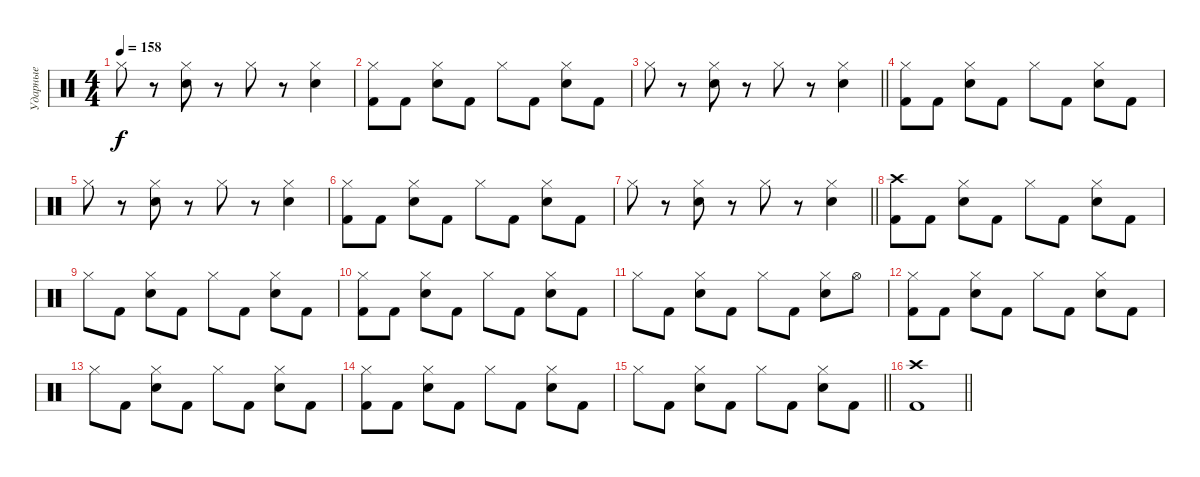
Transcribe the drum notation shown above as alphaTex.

\track ("Ударные" "Ударные") {instrument percussion}
\staff {score}
\articulation defaults
\ts (4 4)
\tempo 158
\clef neutral
\ks c "Hi-Hat (closed)".8{dy f}
r.8 ("Hi-Hat (closed)" "Electric Snare (hit)").8 r.8 "Hi-Hat (closed)".8 r.8 ("Hi-Hat (closed)" "Electric Snare (hit)").4 |
("Hi-Hat (closed)" "Kick (hit) 2").8 "Kick (hit) 2".8 ("Hi-Hat (closed)" "Electric Snare (hit)").8 "Kick (hit) 2".8 "Hi-Hat (closed)".8 "Kick (hit) 2".8 ("Hi-Hat (closed)" "Electric Snare (hit)").8 "Kick (hit) 2".8 |
\barLineRight lightlight "Hi-Hat (closed)".8
r.8 ("Hi-Hat (closed)" "Electric Snare (hit)").8 r.8 "Hi-Hat (closed)".8 r.8 ("Hi-Hat (closed)" "Electric Snare (hit)").4 |
("Hi-Hat (closed)" "Kick (hit) 2").8 "Kick (hit) 2".8 ("Hi-Hat (closed)" "Electric Snare (hit)").8 "Kick (hit) 2".8 "Hi-Hat (closed)".8 "Kick (hit) 2".8 ("Hi-Hat (closed)" "Electric Snare (hit)").8 "Kick (hit) 2".8 |
"Hi-Hat (closed)".8 r.8 ("Hi-Hat (closed)" "Electric Snare (hit)").8 r.8 "Hi-Hat (closed)".8 r.8 ("Hi-Hat (closed)" "Electric Snare (hit)").4 |
("Hi-Hat (closed)" "Kick (hit) 2").8 "Kick (hit) 2".8 ("Hi-Hat (closed)" "Electric Snare (hit)").8 "Kick (hit) 2".8 "Hi-Hat (closed)".8 "Kick (hit) 2".8 ("Hi-Hat (closed)" "Electric Snare (hit)").8 "Kick (hit) 2".8 |
\barLineRight lightlight "Hi-Hat (closed)".8
r.8 ("Hi-Hat (closed)" "Electric Snare (hit)").8 r.8 "Hi-Hat (closed)".8 r.8 ("Hi-Hat (closed)" "Electric Snare (hit)").4 |
("Crash high (hit)" "Kick (hit) 2").8 "Kick (hit) 2".8 ("Hi-Hat (closed)" "Electric Snare (hit)").8 "Kick (hit) 2".8 "Hi-Hat (closed)".8 "Kick (hit) 2".8 ("Hi-Hat (closed)" "Electric Snare (hit)").8 "Kick (hit) 2".8 |
"Hi-Hat (closed)".8 "Kick (hit) 2".8 ("Hi-Hat (closed)" "Electric Snare (hit)").8 "Kick (hit) 2".8 "Hi-Hat (closed)".8 "Kick (hit) 2".8 ("Hi-Hat (closed)" "Electric Snare (hit)").8 "Kick (hit) 2".8 |
("Hi-Hat (closed)" "Kick (hit) 2").8 "Kick (hit) 2".8 ("Hi-Hat (closed)" "Electric Snare (hit)").8 "Kick (hit) 2".8 "Hi-Hat (closed)".8 "Kick (hit) 2".8 ("Hi-Hat (closed)" "Electric Snare (hit)").8 "Kick (hit) 2".8 |
"Hi-Hat (closed)".8 "Kick (hit) 2".8 ("Hi-Hat (closed)" "Electric Snare (hit)").8 "Kick (hit) 2".8 "Hi-Hat (closed)".8 "Kick (hit) 2".8 ("Hi-Hat (closed)" "Electric Snare (hit)").8 "Hi-Hat (open)".8 |
("Hi-Hat (closed)" "Kick (hit) 2").8 "Kick (hit) 2".8 ("Hi-Hat (closed)" "Electric Snare (hit)").8 "Kick (hit) 2".8 "Hi-Hat (closed)".8 "Kick (hit) 2".8 ("Hi-Hat (closed)" "Electric Snare (hit)").8 "Kick (hit) 2".8 |
"Hi-Hat (closed)".8 "Kick (hit) 2".8 ("Hi-Hat (closed)" "Electric Snare (hit)").8 "Kick (hit) 2".8 "Hi-Hat (closed)".8 "Kick (hit) 2".8 ("Hi-Hat (closed)" "Electric Snare (hit)").8 "Kick (hit) 2".8 |
("Hi-Hat (closed)" "Kick (hit) 2").8 "Kick (hit) 2".8 ("Hi-Hat (closed)" "Electric Snare (hit)").8 "Kick (hit) 2".8 "Hi-Hat (closed)".8 "Kick (hit) 2".8 ("Hi-Hat (closed)" "Electric Snare (hit)").8 "Kick (hit) 2".8 |
\barLineRight lightlight "Hi-Hat (closed)".8 "Kick (hit) 2".8
("Hi-Hat (closed)" "Electric Snare (hit)").8 "Kick (hit) 2".8 "Hi-Hat (closed)".8 "Kick (hit) 2".8 ("Hi-Hat (closed)" "Electric Snare (hit)").8 "Kick (hit) 2".8 |
\barLineRight lightlight
("Crash high (hit)" "Kick (hit) 2").1
